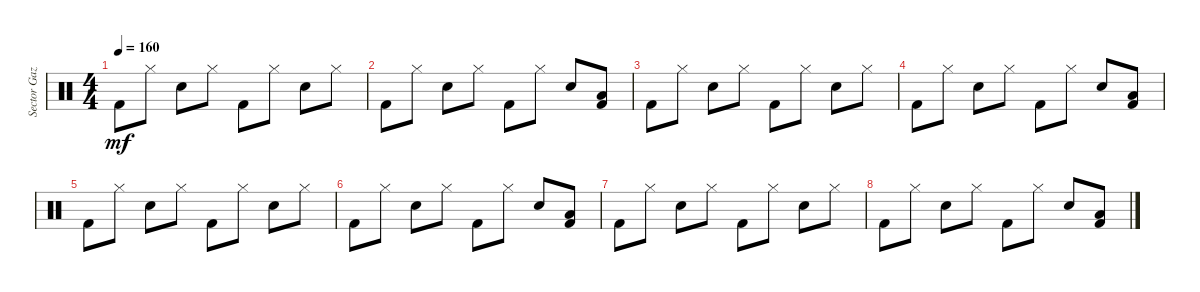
\track ("Sector Gaza" "Sector Gaz") {instrument percussion}
\staff {score}
\articulation defaults
\ts (4 4)
\tempo 160
\clef neutral
\ks c "Kick (hit) 2".8{dy mf} "Hi-Hat (closed)".8 "Snare (hit) 2".8 "Hi-Hat (closed)".8 "Kick (hit) 2".8 "Hi-Hat (closed)".8 "Snare (hit) 2".8 "Hi-Hat (closed)".8
|
"Kick (hit) 2".8 "Hi-Hat (closed)".8 "Snare (hit) 2".8 "Hi-Hat (closed)".8 "Kick (hit) 2".8 "Hi-Hat (closed)".8 "Snare (hit) 2".8 ("Kick (hit) 2" "Low Floor Tom (hit)").8 |
"Kick (hit) 2".8 "Hi-Hat (closed)".8 "Snare (hit) 2".8 "Hi-Hat (closed)".8 "Kick (hit) 2".8 "Hi-Hat (closed)".8 "Snare (hit) 2".8 "Hi-Hat (closed)".8 |
"Kick (hit) 2".8 "Hi-Hat (closed)".8 "Snare (hit) 2".8 "Hi-Hat (closed)".8 "Kick (hit) 2".8 "Hi-Hat (closed)".8 "Snare (hit) 2".8 ("Kick (hit) 2" "Low Floor Tom (hit)").8 |
"Kick (hit) 2".8 "Hi-Hat (closed)".8 "Snare (hit) 2".8 "Hi-Hat (closed)".8 "Kick (hit) 2".8 "Hi-Hat (closed)".8 "Snare (hit) 2".8 "Hi-Hat (closed)".8 |
"Kick (hit) 2".8 "Hi-Hat (closed)".8 "Snare (hit) 2".8 "Hi-Hat (closed)".8 "Kick (hit) 2".8 "Hi-Hat (closed)".8 "Snare (hit) 2".8 ("Kick (hit) 2" "Low Floor Tom (hit)").8 |
"Kick (hit) 2".8 "Hi-Hat (closed)".8 "Snare (hit) 2".8 "Hi-Hat (closed)".8 "Kick (hit) 2".8 "Hi-Hat (closed)".8 "Snare (hit) 2".8 "Hi-Hat (closed)".8 |
"Kick (hit) 2".8 "Hi-Hat (closed)".8 "Snare (hit) 2".8 "Hi-Hat (closed)".8 "Kick (hit) 2".8 "Hi-Hat (closed)".8 "Snare (hit) 2".8 ("Kick (hit) 2" "Low Floor Tom (hit)").8
